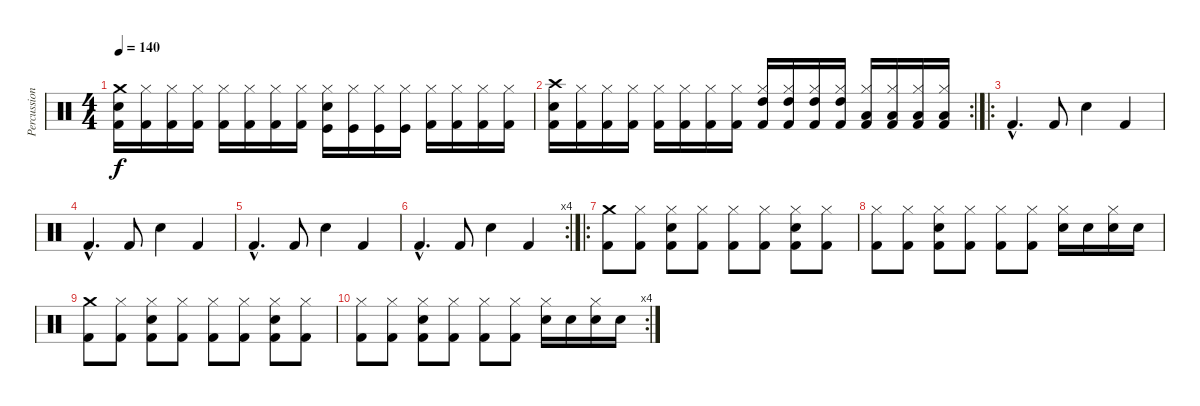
\track ("Percussion" "Percussion") {instrument percussion}
\staff {score}
\articulation defaults
\ts (4 4)
\tempo 140
\clef neutral
\ks c
("Crash medium (hit)" "Snare (hit) 2" "Kick (hit) 2").16{dy f} ("Hi-Hat (closed)" "Kick (hit) 2").16 ("Hi-Hat (closed)" "Kick (hit) 2").16 ("Hi-Hat (closed)" "Kick (hit) 2").16 ("Hi-Hat (closed)" "Kick (hit) 2").16 ("Hi-Hat (closed)" "Kick (hit) 2").16 ("Hi-Hat (closed)" "Kick (hit) 2").16 ("Hi-Hat (closed)" "Kick (hit) 2").16 ("Hi-Hat (closed)" "Snare (hit) 2" "Kick (hit)").16 ("Hi-Hat (closed)" "Kick (hit)").16 ("Hi-Hat (closed)" "Kick (hit)").16 ("Hi-Hat (closed)" "Kick (hit)").16 ("Hi-Hat (closed)" "Kick (hit) 2").16 ("Hi-Hat (closed)" "Kick (hit) 2").16 ("Hi-Hat (closed)" "Kick (hit) 2").16 ("Hi-Hat (closed)" "Kick (hit) 2").16 |
\rc 2
("Crash high (hit)" "Snare (hit) 2" "Kick (hit) 2").16 ("Hi-Hat (closed)" "Kick (hit) 2").16 ("Hi-Hat (closed)" "Kick (hit) 2").16 ("Hi-Hat (closed)" "Kick (hit) 2").16 ("Hi-Hat (closed)" "Kick (hit) 2").16 ("Hi-Hat (closed)" "Kick (hit) 2").16 ("Hi-Hat (closed)" "Kick (hit) 2").16 ("Hi-Hat (closed)" "Kick (hit) 2").16 ("Hi-Hat (closed)" "High Tom (hit)" "Kick (hit) 2").16 ("Hi-Hat (closed)" "High Tom (hit)" "Kick (hit) 2").16 ("Hi-Hat (closed)" "High Tom (hit)" "Kick (hit) 2").16 ("Hi-Hat (closed)" "High Tom (hit)" "Kick (hit) 2").16 ("Hi-Hat (closed)" "Low Tom (hit)" "Kick (hit) 2").16 ("Hi-Hat (closed)" "Low Tom (hit)" "Kick (hit) 2").16 ("Hi-Hat (closed)" "Low Tom (hit)" "Kick (hit) 2").16 ("Hi-Hat (closed)" "Low Tom (hit)" "Kick (hit) 2").16 |
\ro "Kick (hit) 2"{hac}.4{d} "Kick (hit) 2".8 "Snare (hit) 2".4 "Kick (hit) 2".4
|
"Kick (hit) 2"{hac}.4{d} "Kick (hit) 2".8 "Snare (hit) 2".4 "Kick (hit) 2".4 |
"Kick (hit) 2"{hac}.4{d} "Kick (hit) 2".8 "Snare (hit) 2".4 "Kick (hit) 2".4 |
\rc 4 "Kick (hit) 2"{hac}.4{d} "Kick (hit) 2".8 "Snare (hit) 2".4 "Kick (hit) 2".4
|
\ro
("Crash medium (hit)" "Kick (hit) 2").8 ("Hi-Hat (closed)" "Kick (hit) 2").8 ("Hi-Hat (closed)" "Snare (hit) 2" "Kick (hit) 2").8 ("Hi-Hat (closed)" "Kick (hit) 2").8 ("Hi-Hat (closed)" "Kick (hit) 2").8 ("Hi-Hat (closed)" "Kick (hit) 2").8 ("Hi-Hat (closed)" "Snare (hit) 2" "Kick (hit) 2").8 ("Hi-Hat (closed)" "Kick (hit) 2").8 |
("Hi-Hat (closed)" "Kick (hit) 2").8 ("Hi-Hat (closed)" "Kick (hit) 2").8 ("Hi-Hat (closed)" "Snare (hit) 2" "Kick (hit) 2").8 ("Hi-Hat (closed)" "Kick (hit) 2").8 ("Hi-Hat (closed)" "Kick (hit) 2").8 ("Hi-Hat (closed)" "Kick (hit) 2").8 ("Hi-Hat (closed)" "Snare (hit) 2").16 "Snare (hit) 2".16 ("Hi-Hat (closed)" "Snare (hit) 2").16 "Snare (hit) 2".16 |
("Crash medium (hit)" "Kick (hit) 2").8 ("Hi-Hat (closed)" "Kick (hit) 2").8 ("Hi-Hat (closed)" "Snare (hit) 2" "Kick (hit) 2").8 ("Hi-Hat (closed)" "Kick (hit) 2").8 ("Hi-Hat (closed)" "Kick (hit) 2").8 ("Hi-Hat (closed)" "Kick (hit) 2").8 ("Hi-Hat (closed)" "Snare (hit) 2" "Kick (hit) 2").8 ("Hi-Hat (closed)" "Kick (hit) 2").8 |
\rc 4
("Hi-Hat (closed)" "Kick (hit) 2").8 ("Hi-Hat (closed)" "Kick (hit) 2").8 ("Hi-Hat (closed)" "Snare (hit) 2" "Kick (hit) 2").8 ("Hi-Hat (closed)" "Kick (hit) 2").8 ("Hi-Hat (closed)" "Kick (hit) 2").8 ("Hi-Hat (closed)" "Kick (hit) 2").8 ("Hi-Hat (closed)" "Snare (hit) 2").16 "Snare (hit) 2".16 ("Hi-Hat (closed)" "Snare (hit) 2").16 "Snare (hit) 2".16
